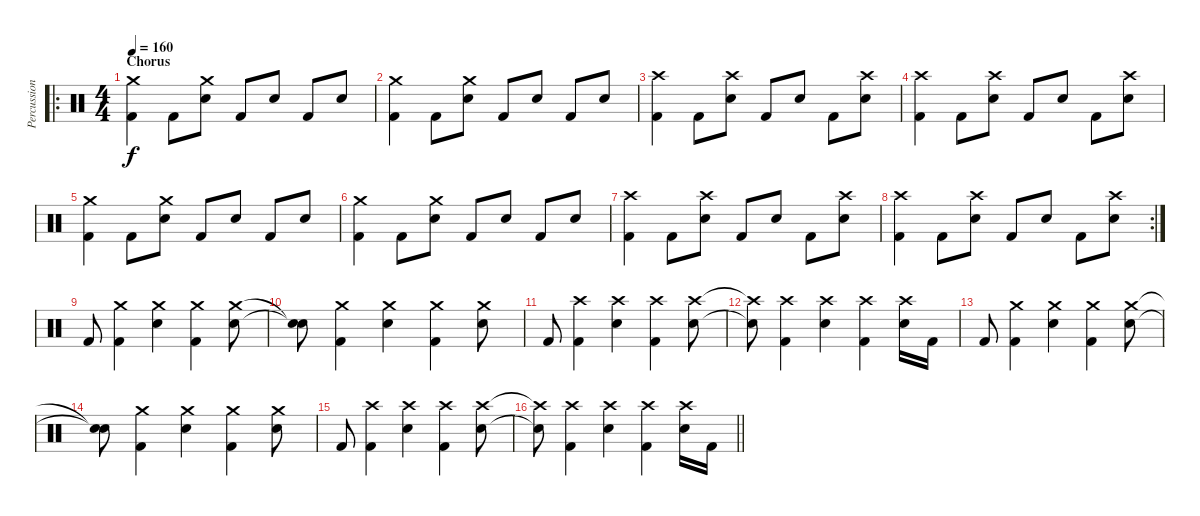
\track ("Percussion" "Percussion") {instrument percussion}
\staff {score}
\articulation defaults
\ro
\ts (4 4)
\section ("" "Chorus")
\tempo 160
\clef neutral
\ks c
("Crash medium (hit)" "Kick (hit) 2").4{dy f} "Kick (hit) 2".8 ("Crash medium (hit)" "Electric Snare (hit)").8 "Kick (hit) 2".8 "Electric Snare (hit)".8 "Kick (hit) 2".8 "Electric Snare (hit)".8 |
("Crash medium (hit)" "Kick (hit) 2").4 "Kick (hit) 2".8 ("Crash medium (hit)" "Electric Snare (hit)").8 "Kick (hit) 2".8 "Electric Snare (hit)".8 "Kick (hit) 2".8 "Electric Snare (hit)".8 |
("Crash high (hit)" "Kick (hit) 2").4 "Kick (hit) 2".8 ("Crash high (hit)" "Electric Snare (hit)").8 "Kick (hit) 2".8 "Electric Snare (hit)".8 "Kick (hit) 2".8 ("Crash high (hit)" "Electric Snare (hit)").8 |
("Crash high (hit)" "Kick (hit) 2").4 "Kick (hit) 2".8 ("Crash high (hit)" "Electric Snare (hit)").8 "Kick (hit) 2".8 "Electric Snare (hit)".8 "Kick (hit) 2".8 ("Crash high (hit)" "Electric Snare (hit)").8 |
("Crash medium (hit)" "Kick (hit) 2").4 "Kick (hit) 2".8 ("Crash medium (hit)" "Electric Snare (hit)").8 "Kick (hit) 2".8 "Electric Snare (hit)".8 "Kick (hit) 2".8 "Electric Snare (hit)".8 |
("Crash medium (hit)" "Kick (hit) 2").4 "Kick (hit) 2".8 ("Crash medium (hit)" "Electric Snare (hit)").8 "Kick (hit) 2".8 "Electric Snare (hit)".8 "Kick (hit) 2".8 "Electric Snare (hit)".8 |
("Crash high (hit)" "Kick (hit) 2").4 "Kick (hit) 2".8 ("Crash high (hit)" "Electric Snare (hit)").8 "Kick (hit) 2".8 "Electric Snare (hit)".8 "Kick (hit) 2".8 ("Crash high (hit)" "Electric Snare (hit)").8 |
\rc 2
("Crash high (hit)" "Kick (hit) 2").4 "Kick (hit) 2".8 ("Crash high (hit)" "Electric Snare (hit)").8 "Kick (hit) 2".8 "Electric Snare (hit)".8 "Kick (hit) 2".8 ("Crash high (hit)" "Electric Snare (hit)").8 |
"Kick (hit) 2".8 ("Crash medium (hit)" "Kick (hit) 2").4 ("Crash medium (hit)" "Electric Snare (hit)").4 ("Crash medium (hit)" "Kick (hit) 2").4 ("Crash medium (hit)" "Electric Snare (hit)").8 |
("Snare (hit)"{t} "Snare (hit)"{t}).8 ("Crash medium (hit)" "Kick (hit) 2").4 ("Crash medium (hit)" "Electric Snare (hit)").4 ("Crash medium (hit)" "Kick (hit) 2").4 ("Crash medium (hit)" "Electric Snare (hit)").8 |
"Kick (hit) 2".8 ("Crash high (hit)" "Kick (hit) 2").4 ("Crash high (hit)" "Electric Snare (hit)").4 ("Crash high (hit)" "Kick (hit) 2").4 ("Crash high (hit)" "Electric Snare (hit)").8 |
("Crash high (hit)"{t} "Snare (hit)"{t}).8 ("Crash high (hit)" "Kick (hit) 2").4 ("Crash high (hit)" "Electric Snare (hit)").4 ("Crash high (hit)" "Kick (hit) 2").4 ("Crash high (hit)" "Electric Snare (hit)").16 "Kick (hit) 2".16 |
"Kick (hit) 2".8 ("Crash medium (hit)" "Kick (hit) 2").4 ("Crash medium (hit)" "Electric Snare (hit)").4 ("Crash medium (hit)" "Kick (hit) 2").4 ("Crash medium (hit)" "Electric Snare (hit)").8 |
("Snare (hit)"{t} "Snare (hit)"{t}).8 ("Crash medium (hit)" "Kick (hit) 2").4 ("Crash medium (hit)" "Electric Snare (hit)").4 ("Crash medium (hit)" "Kick (hit) 2").4 ("Crash medium (hit)" "Electric Snare (hit)").8 |
"Kick (hit) 2".8 ("Crash high (hit)" "Kick (hit) 2").4 ("Crash high (hit)" "Electric Snare (hit)").4 ("Crash high (hit)" "Kick (hit) 2").4 ("Crash high (hit)" "Electric Snare (hit)").8 |
\barLineRight lightlight
("Crash high (hit)"{t} "Snare (hit)"{t}).8 ("Crash high (hit)" "Kick (hit) 2").4 ("Crash high (hit)" "Electric Snare (hit)").4 ("Crash high (hit)" "Kick (hit) 2").4 ("Crash high (hit)" "Electric Snare (hit)").16 "Kick (hit) 2".16
